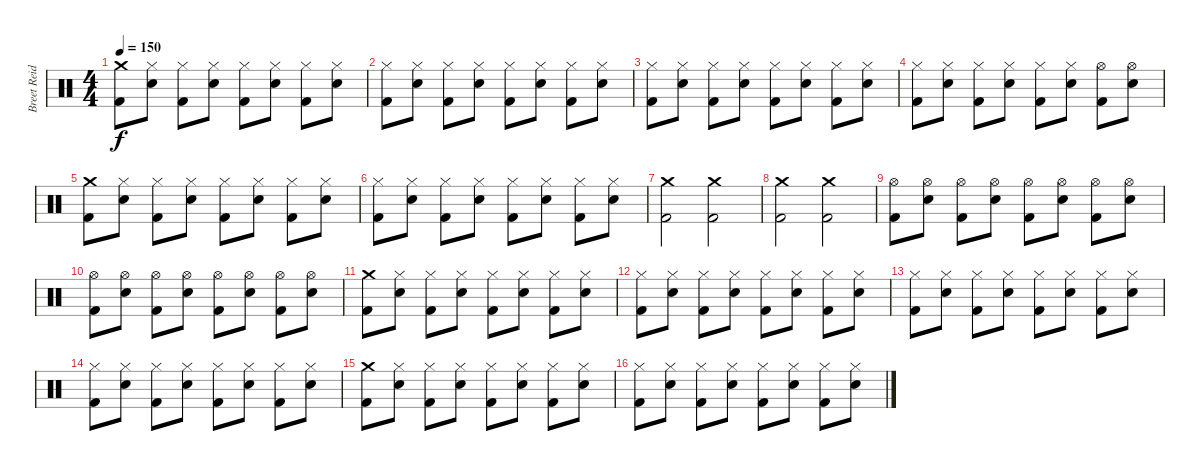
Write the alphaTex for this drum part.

\track ("Breet Reid" "Breet Reid") {instrument percussion}
\staff {score}
\articulation defaults
\ts (4 4)
\tempo 150
\clef neutral
\ks c
("Crash medium (hit)" "Kick (hit) 2").8{dy f} ("Hi-Hat (closed)" "Snare (hit) 2").8 ("Hi-Hat (closed)" "Kick (hit) 2").8 ("Hi-Hat (closed)" "Snare (hit) 2").8 ("Hi-Hat (closed)" "Kick (hit) 2").8 ("Hi-Hat (closed)" "Snare (hit) 2").8 ("Hi-Hat (closed)" "Kick (hit) 2").8 ("Hi-Hat (closed)" "Snare (hit) 2").8 |
("Hi-Hat (closed)" "Kick (hit) 2").8 ("Hi-Hat (closed)" "Snare (hit) 2").8 ("Hi-Hat (closed)" "Kick (hit) 2").8 ("Hi-Hat (closed)" "Snare (hit) 2").8 ("Hi-Hat (closed)" "Kick (hit) 2").8 ("Hi-Hat (closed)" "Snare (hit) 2").8 ("Hi-Hat (closed)" "Kick (hit) 2").8 ("Hi-Hat (closed)" "Snare (hit) 2").8 |
("Hi-Hat (closed)" "Kick (hit) 2").8 ("Hi-Hat (closed)" "Snare (hit) 2").8 ("Hi-Hat (closed)" "Kick (hit) 2").8 ("Hi-Hat (closed)" "Snare (hit) 2").8 ("Hi-Hat (closed)" "Kick (hit) 2").8 ("Hi-Hat (closed)" "Snare (hit) 2").8 ("Hi-Hat (closed)" "Kick (hit) 2").8 ("Hi-Hat (closed)" "Snare (hit) 2").8 |
("Hi-Hat (closed)" "Kick (hit) 2").8 ("Hi-Hat (closed)" "Snare (hit) 2").8 ("Hi-Hat (closed)" "Kick (hit) 2").8 ("Hi-Hat (closed)" "Snare (hit) 2").8 ("Hi-Hat (closed)" "Kick (hit) 2").8 ("Hi-Hat (closed)" "Snare (hit) 2").8 ("Hi-Hat (open)" "Kick (hit) 2").8 ("Hi-Hat (open)" "Snare (hit) 2").8 |
("Crash medium (hit)" "Kick (hit) 2").8 ("Hi-Hat (closed)" "Snare (hit) 2").8 ("Hi-Hat (closed)" "Kick (hit) 2").8 ("Hi-Hat (closed)" "Snare (hit) 2").8 ("Hi-Hat (closed)" "Kick (hit) 2").8 ("Hi-Hat (closed)" "Snare (hit) 2").8 ("Hi-Hat (closed)" "Kick (hit) 2").8 ("Hi-Hat (closed)" "Snare (hit) 2").8 |
("Hi-Hat (closed)" "Kick (hit) 2").8 ("Hi-Hat (closed)" "Snare (hit) 2").8 ("Hi-Hat (closed)" "Kick (hit) 2").8 ("Hi-Hat (closed)" "Snare (hit) 2").8 ("Hi-Hat (closed)" "Kick (hit) 2").8 ("Hi-Hat (closed)" "Snare (hit) 2").8 ("Hi-Hat (closed)" "Kick (hit) 2").8 ("Hi-Hat (closed)" "Snare (hit) 2").8 |
("Crash medium (hit)" "Kick (hit) 2").2 ("Crash medium (hit)" "Kick (hit) 2").2 |
("Crash medium (hit)" "Kick (hit) 2").2 ("Crash medium (hit)" "Kick (hit) 2").2 |
("Hi-Hat (open)" "Kick (hit) 2").8 ("Hi-Hat (open)" "Snare (hit) 2").8 ("Hi-Hat (open)" "Kick (hit) 2").8 ("Hi-Hat (open)" "Snare (hit) 2").8 ("Hi-Hat (open)" "Kick (hit) 2").8 ("Hi-Hat (open)" "Snare (hit) 2").8 ("Hi-Hat (open)" "Kick (hit) 2").8 ("Hi-Hat (open)" "Snare (hit) 2").8 |
("Hi-Hat (open)" "Kick (hit) 2").8 ("Hi-Hat (open)" "Snare (hit) 2").8 ("Hi-Hat (open)" "Kick (hit) 2").8 ("Hi-Hat (open)" "Snare (hit) 2").8 ("Hi-Hat (open)" "Kick (hit) 2").8 ("Hi-Hat (open)" "Snare (hit) 2").8 ("Hi-Hat (open)" "Kick (hit) 2").8 ("Hi-Hat (open)" "Snare (hit) 2").8 |
("Crash medium (hit)" "Kick (hit) 2").8 ("Hi-Hat (closed)" "Snare (hit) 2").8 ("Hi-Hat (closed)" "Kick (hit) 2").8 ("Hi-Hat (closed)" "Snare (hit) 2").8 ("Hi-Hat (closed)" "Kick (hit) 2").8 ("Hi-Hat (closed)" "Snare (hit) 2").8 ("Hi-Hat (closed)" "Kick (hit) 2").8 ("Hi-Hat (closed)" "Snare (hit) 2").8 |
("Hi-Hat (closed)" "Kick (hit) 2").8 ("Hi-Hat (closed)" "Snare (hit) 2").8 ("Hi-Hat (closed)" "Kick (hit) 2").8 ("Hi-Hat (closed)" "Snare (hit) 2").8 ("Hi-Hat (closed)" "Kick (hit) 2").8 ("Hi-Hat (closed)" "Snare (hit) 2").8 ("Hi-Hat (closed)" "Kick (hit) 2").8 ("Hi-Hat (closed)" "Snare (hit) 2").8 |
("Hi-Hat (closed)" "Kick (hit) 2").8 ("Hi-Hat (closed)" "Snare (hit) 2").8 ("Hi-Hat (closed)" "Kick (hit) 2").8 ("Hi-Hat (closed)" "Snare (hit) 2").8 ("Hi-Hat (closed)" "Kick (hit) 2").8 ("Hi-Hat (closed)" "Snare (hit) 2").8 ("Hi-Hat (closed)" "Kick (hit) 2").8 ("Hi-Hat (closed)" "Snare (hit) 2").8 |
("Hi-Hat (closed)" "Kick (hit) 2").8 ("Hi-Hat (closed)" "Snare (hit) 2").8 ("Hi-Hat (closed)" "Kick (hit) 2").8 ("Hi-Hat (closed)" "Snare (hit) 2").8 ("Hi-Hat (closed)" "Kick (hit) 2").8 ("Hi-Hat (closed)" "Snare (hit) 2").8 ("Hi-Hat (closed)" "Kick (hit) 2").8 ("Hi-Hat (closed)" "Snare (hit) 2").8 |
("Crash medium (hit)" "Kick (hit) 2").8 ("Hi-Hat (closed)" "Snare (hit) 2").8 ("Hi-Hat (closed)" "Kick (hit) 2").8 ("Hi-Hat (closed)" "Snare (hit) 2").8 ("Hi-Hat (closed)" "Kick (hit) 2").8 ("Hi-Hat (closed)" "Snare (hit) 2").8 ("Hi-Hat (closed)" "Kick (hit) 2").8 ("Hi-Hat (closed)" "Snare (hit) 2").8 |
("Hi-Hat (closed)" "Kick (hit) 2").8 ("Hi-Hat (closed)" "Snare (hit) 2").8 ("Hi-Hat (closed)" "Kick (hit) 2").8 ("Hi-Hat (closed)" "Snare (hit) 2").8 ("Hi-Hat (closed)" "Kick (hit) 2").8 ("Hi-Hat (closed)" "Snare (hit) 2").8 ("Hi-Hat (closed)" "Kick (hit) 2").8 ("Hi-Hat (closed)" "Snare (hit) 2").8
